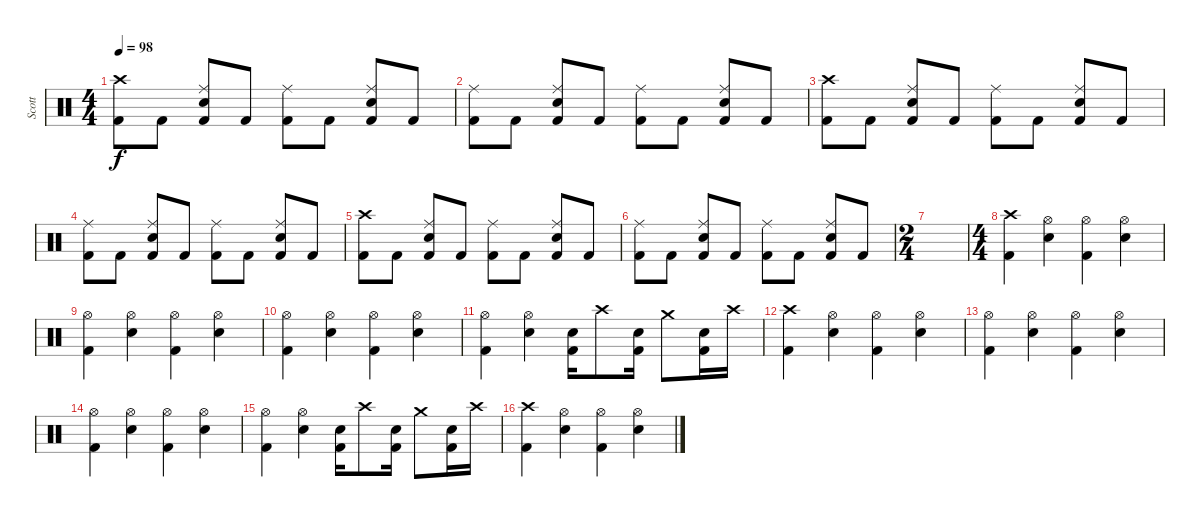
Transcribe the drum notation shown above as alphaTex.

\track ("Scott" "Scott") {instrument percussion}
\staff {score}
\articulation defaults
\ts (4 4)
\tempo 98
\clef neutral
\ks c
("Crash high (hit)" "Kick (hit) 2").8{dy f} "Kick (hit) 2".8 ("Ride (middle)" "Electric Snare (hit)" "Kick (hit) 2").8 "Kick (hit) 2".8 ("Ride (middle)" "Kick (hit) 2").8 "Kick (hit) 2".8 ("Ride (middle)" "Electric Snare (hit)" "Kick (hit) 2").8 "Kick (hit) 2".8 |
("Ride (middle)" "Kick (hit) 2").8 "Kick (hit) 2".8 ("Ride (middle)" "Electric Snare (hit)" "Kick (hit) 2").8 "Kick (hit) 2".8 ("Ride (middle)" "Kick (hit) 2").8 "Kick (hit) 2".8 ("Ride (middle)" "Electric Snare (hit)" "Kick (hit) 2").8 "Kick (hit) 2".8 |
("Crash high (hit)" "Kick (hit) 2").8 "Kick (hit) 2".8 ("Ride (middle)" "Electric Snare (hit)" "Kick (hit) 2").8 "Kick (hit) 2".8 ("Ride (middle)" "Kick (hit) 2").8 "Kick (hit) 2".8 ("Ride (middle)" "Electric Snare (hit)" "Kick (hit) 2").8 "Kick (hit) 2".8 |
("Ride (middle)" "Kick (hit) 2").8 "Kick (hit) 2".8 ("Ride (middle)" "Electric Snare (hit)" "Kick (hit) 2").8 "Kick (hit) 2".8 ("Ride (middle)" "Kick (hit) 2").8 "Kick (hit) 2".8 ("Ride (middle)" "Electric Snare (hit)" "Kick (hit) 2").8 "Kick (hit) 2".8 |
("Crash high (hit)" "Kick (hit) 2").8 "Kick (hit) 2".8 ("Ride (middle)" "Electric Snare (hit)" "Kick (hit) 2").8 "Kick (hit) 2".8 ("Ride (middle)" "Kick (hit) 2").8 "Kick (hit) 2".8 ("Ride (middle)" "Electric Snare (hit)" "Kick (hit) 2").8 "Kick (hit) 2".8 |
("Ride (middle)" "Kick (hit) 2").8 "Kick (hit) 2".8 ("Ride (middle)" "Electric Snare (hit)" "Kick (hit) 2").8 "Kick (hit) 2".8 ("Ride (middle)" "Kick (hit) 2").8 "Kick (hit) 2".8 ("Ride (middle)" "Electric Snare (hit)" "Kick (hit) 2").8 "Kick (hit) 2".8 |
\ts (2 4)
|
\ts (4 4)
("Crash high (hit)" "Kick (hit) 2").4 ("Hi-Hat (open)" "Snare (hit) 2").4 ("Hi-Hat (open)" "Kick (hit) 2").4 ("Hi-Hat (open)" "Snare (hit) 2").4 |
("Hi-Hat (open)" "Kick (hit) 2").4 ("Hi-Hat (open)" "Snare (hit) 2").4 ("Hi-Hat (open)" "Kick (hit) 2").4 ("Hi-Hat (open)" "Snare (hit) 2").4 |
("Hi-Hat (open)" "Kick (hit) 2").4 ("Hi-Hat (open)" "Snare (hit) 2").4 ("Hi-Hat (open)" "Kick (hit) 2").4 ("Hi-Hat (open)" "Snare (hit) 2").4 |
("Hi-Hat (open)" "Kick (hit) 2").4 ("Hi-Hat (open)" "Snare (hit) 2").4 ("Snare (hit) 2" "Kick (hit) 2").16 "Crash high (hit)".8 ("Snare (hit) 2" "Kick (hit) 2").16 "Crash medium (hit)".8 ("Snare (hit) 2" "Kick (hit) 2").16 "Crash high (hit)".16 |
("Crash high (hit)" "Kick (hit) 2").4 ("Hi-Hat (open)" "Snare (hit) 2").4 ("Hi-Hat (open)" "Kick (hit) 2").4 ("Hi-Hat (open)" "Snare (hit) 2").4 |
("Hi-Hat (open)" "Kick (hit) 2").4 ("Hi-Hat (open)" "Snare (hit) 2").4 ("Hi-Hat (open)" "Kick (hit) 2").4 ("Hi-Hat (open)" "Snare (hit) 2").4 |
("Hi-Hat (open)" "Kick (hit) 2").4 ("Hi-Hat (open)" "Snare (hit) 2").4 ("Hi-Hat (open)" "Kick (hit) 2").4 ("Hi-Hat (open)" "Snare (hit) 2").4 |
("Hi-Hat (open)" "Kick (hit) 2").4 ("Hi-Hat (open)" "Snare (hit) 2").4 ("Snare (hit) 2" "Kick (hit) 2").16 "Crash high (hit)".8 ("Snare (hit) 2" "Kick (hit) 2").16 "Crash medium (hit)".8 ("Snare (hit) 2" "Kick (hit) 2").16 "Crash high (hit)".16 |
("Crash high (hit)" "Kick (hit) 2").4 ("Hi-Hat (open)" "Snare (hit) 2").4 ("Hi-Hat (open)" "Kick (hit) 2").4 ("Hi-Hat (open)" "Snare (hit) 2").4
